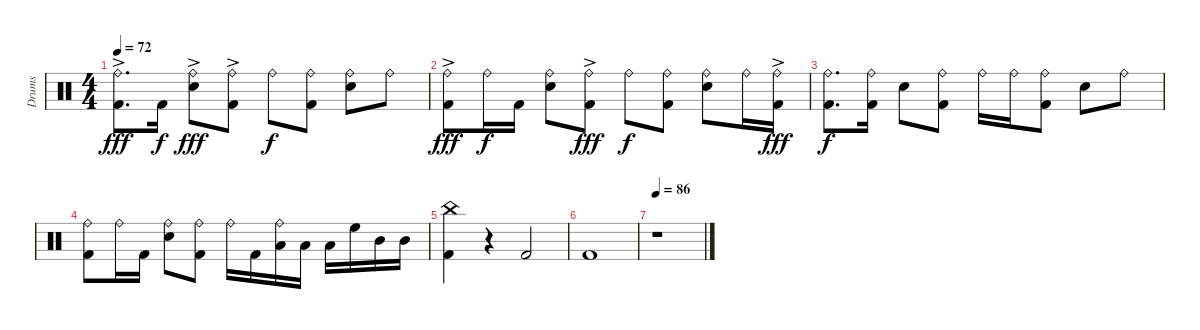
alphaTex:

\track ("Drums" "Drums") {instrument percussion}
\staff {score}
\articulation defaults
\ts (4 4)
\tempo 72
\clef neutral
\ks c
("Kick (hit) 2" "Ride (bell)"{ac}).8{d dy fff} "Kick (hit) 2".16{dy f} ("Snare (hit) 2" "Ride (bell)"{ac}).8{dy fff} ("Kick (hit) 2" "Ride (bell)"{ac}).8 "Ride (bell)".8{dy f} ("Kick (hit) 2" "Ride (bell)").8 ("Snare (hit) 2" "Ride (bell)").8 "Ride (bell)".8 |
("Kick (hit) 2" "Ride (bell)"{ac}).8{dy fff} "Ride (bell)".16{dy f} "Kick (hit) 2".16 ("Snare (hit) 2" "Ride (bell)").8 ("Kick (hit) 2" "Ride (bell)"{ac}).8{dy fff} "Ride (bell)".8{dy f} ("Kick (hit) 2" "Ride (bell)").8 ("Snare (hit) 2" "Ride (bell)").8 "Ride (bell)".16 ("Kick (hit) 2" "Ride (bell)"{ac}).16{dy fff} |
("Kick (hit) 2" "Ride (bell)").8{d dy f} ("Kick (hit) 2" "Ride (bell)").16 "Snare (hit) 2".8 ("Kick (hit) 2" "Ride (bell)").8 "Ride (bell)".16 "Ride (bell)".16 ("Kick (hit) 2" "Ride (bell)").8 "Snare (hit) 2".8 "Ride (bell)".8 |
("Kick (hit) 2" "Ride (bell)").8 "Ride (bell)".16 "Kick (hit) 2".16 ("Snare (hit) 2" "Ride (bell)").8 ("Kick (hit) 2" "Ride (bell)").8 "Ride (bell)".16 "Kick (hit) 2".16 ("Low Floor Tom (hit)" "Ride (bell)").16 "Low Floor Tom (hit)".16 "Low Floor Tom (hit)".16 "High Floor Tom (hit)".16 "Mid Tom (hit)".16 "Mid Tom (hit)".16 |
("Kick (hit) 2" "China (hit)").4 r.4 "Kick (hit) 2".2 |
"Kick (hit) 2".1 |
\tempo 86
r.1
